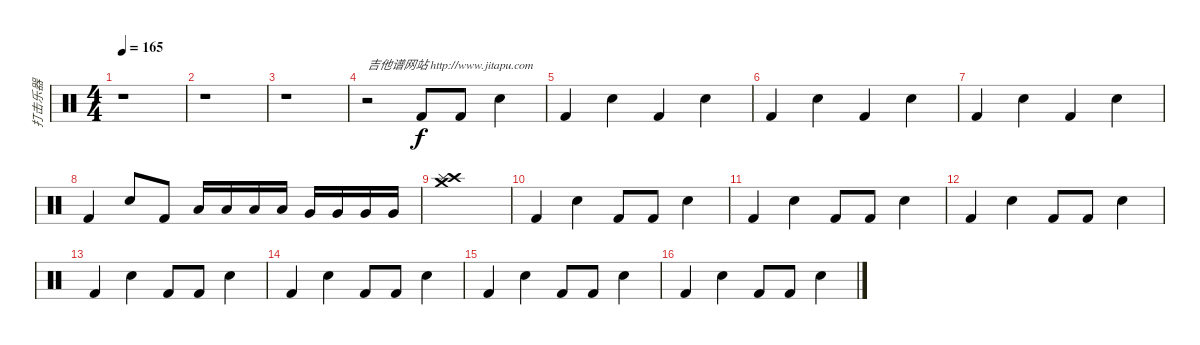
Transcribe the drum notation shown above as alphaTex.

\track ("打击乐器" "打击乐器") {instrument percussion}
\staff {score}
\articulation defaults
\ts (4 4)
\tempo 165
\clef neutral
\ks c
r.1{dy f} |
r.1 |
r.1 |
r.2{txt "吉他谱网站 http://www.jitapu.com"} "Kick (hit) 2".8 "Kick (hit) 2".8 "Electric Snare (hit)".4 |
"Kick (hit) 2".4 "Snare (hit) 2".4 "Kick (hit) 2".4 "Snare (hit) 2".4 |
"Kick (hit) 2".4 "Snare (hit) 2".4 "Kick (hit) 2".4 "Snare (hit) 2".4 |
"Kick (hit) 2".4 "Snare (hit) 2".4 "Kick (hit) 2".4 "Snare (hit) 2".4 |
"Kick (hit) 2".4 "Snare (hit) 2".8 "Kick (hit) 2".8 "Low Tom (hit)".16 "Low Tom (hit)".16 "Low Tom (hit)".16 "Low Tom (hit)".16 "Very Low Tom (hit)".16 "Very Low Tom (hit)".16 "Very Low Tom (hit)".16 "Very Low Tom (hit)".16 |
("Crash high (hit)" "Splash (hit)" "Crash medium (hit)").1 |
"Kick (hit) 2".4 "Snare (hit) 2".4 "Kick (hit) 2".8 "Kick (hit) 2".8 "Snare (hit) 2".4 |
"Kick (hit) 2".4 "Snare (hit) 2".4 "Kick (hit) 2".8 "Kick (hit) 2".8 "Snare (hit) 2".4 |
"Kick (hit) 2".4 "Snare (hit) 2".4 "Kick (hit) 2".8 "Kick (hit) 2".8 "Snare (hit) 2".4 |
"Kick (hit) 2".4 "Snare (hit) 2".4 "Kick (hit) 2".8 "Kick (hit) 2".8 "Snare (hit) 2".4 |
"Kick (hit) 2".4 "Snare (hit) 2".4 "Kick (hit) 2".8 "Kick (hit) 2".8 "Snare (hit) 2".4 |
"Kick (hit) 2".4 "Snare (hit) 2".4 "Kick (hit) 2".8 "Kick (hit) 2".8 "Snare (hit) 2".4 |
"Kick (hit) 2".4 "Snare (hit) 2".4 "Kick (hit) 2".8 "Kick (hit) 2".8 "Snare (hit) 2".4
